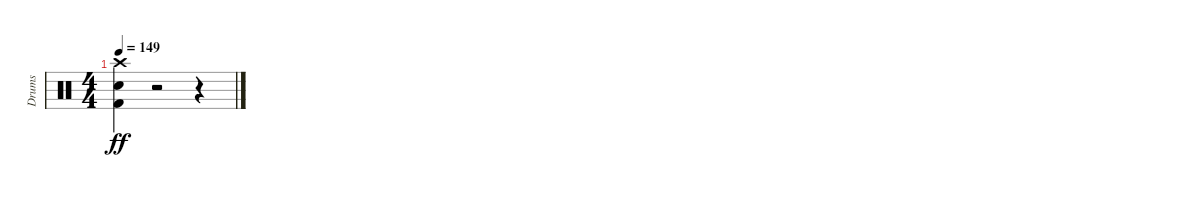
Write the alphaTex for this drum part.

\track ("Drums" "Drums") {instrument percussion}
\staff {score}
\articulation defaults
\ts (4 4)
\tempo 149
\clef neutral
\ks c
("Kick (hit) 2" "Snare (hit) 2" "Crash high (hit)").4{dy ff} r.2 r.4
